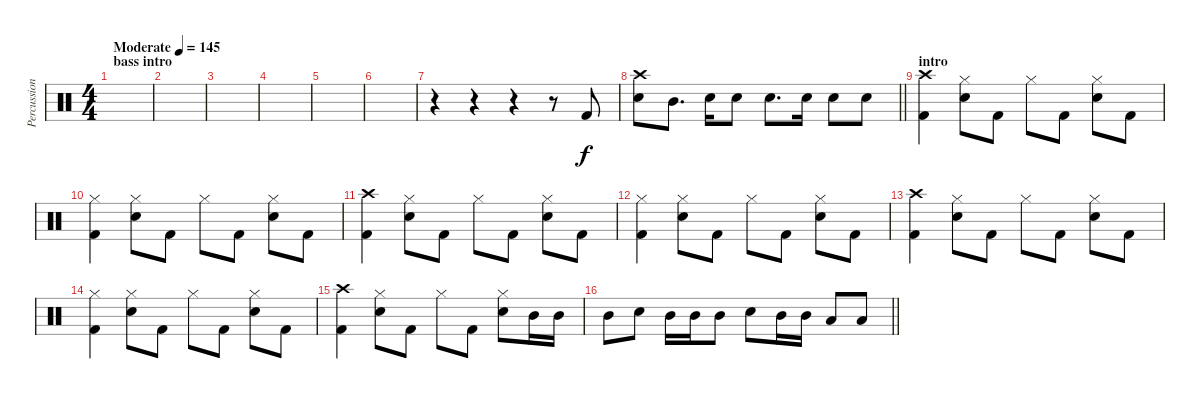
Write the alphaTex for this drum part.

\track ("Percussion" "Percussion") {instrument percussion}
\staff {score}
\articulation defaults
\ts (4 4)
\section ("" "bass intro")
\tempo (145 "Moderate")
\clef neutral
\ks c
|
|
|
|
|
|
r.4 r.4 r.4 r.8 "Kick (hit) 2".8 |
\barLineRight lightlight
("Crash high (hit)" "Electric Snare (hit)").8 "Mid Tom (hit)".8{d} "Electric Snare (hit)".16 "Electric Snare (hit)".8 "Electric Snare (hit)".8{d} "Electric Snare (hit)".16 "Electric Snare (hit)".8 "Electric Snare (hit)".8 |
\section ("" "intro ")
("Crash high (hit)" "Kick (hit) 2").4 ("Hi-Hat (closed)" "Electric Snare (hit)").8 "Kick (hit) 2".8 "Hi-Hat (closed)".8 "Kick (hit) 2".8 ("Hi-Hat (closed)" "Electric Snare (hit)").8 "Kick (hit) 2".8 |
("Hi-Hat (closed)" "Kick (hit) 2").4 ("Hi-Hat (closed)" "Electric Snare (hit)").8 "Kick (hit) 2".8 "Hi-Hat (closed)".8 "Kick (hit) 2".8 ("Hi-Hat (closed)" "Electric Snare (hit)").8 "Kick (hit) 2".8 |
("Crash high (hit)" "Kick (hit) 2").4 ("Hi-Hat (closed)" "Electric Snare (hit)").8 "Kick (hit) 2".8 "Hi-Hat (closed)".8 "Kick (hit) 2".8 ("Hi-Hat (closed)" "Electric Snare (hit)").8 "Kick (hit) 2".8 |
("Hi-Hat (closed)" "Kick (hit) 2").4 ("Hi-Hat (closed)" "Electric Snare (hit)").8 "Kick (hit) 2".8 "Hi-Hat (closed)".8 "Kick (hit) 2".8 ("Hi-Hat (closed)" "Electric Snare (hit)").8 "Kick (hit) 2".8 |
("Crash high (hit)" "Kick (hit) 2").4 ("Hi-Hat (closed)" "Electric Snare (hit)").8 "Kick (hit) 2".8 "Hi-Hat (closed)".8 "Kick (hit) 2".8 ("Hi-Hat (closed)" "Electric Snare (hit)").8 "Kick (hit) 2".8 |
("Hi-Hat (closed)" "Kick (hit) 2").4 ("Hi-Hat (closed)" "Electric Snare (hit)").8 "Kick (hit) 2".8 "Hi-Hat (closed)".8 "Kick (hit) 2".8 ("Hi-Hat (closed)" "Electric Snare (hit)").8 "Kick (hit) 2".8 |
("Crash high (hit)" "Kick (hit) 2").4 ("Hi-Hat (closed)" "Electric Snare (hit)").8 "Kick (hit) 2".8 "Hi-Hat (closed)".8 "Kick (hit) 2".8 ("Hi-Hat (closed)" "Electric Snare (hit)").8 "Mid Tom (hit)".16 "Mid Tom (hit)".16 |
\barLineRight lightlight "Mid Tom (hit)".8 "Electric Snare (hit)".8 "Mid Tom (hit)".16 "Mid Tom (hit)".16 "Mid Tom (hit)".8 "Electric Snare (hit)".8 "Mid Tom (hit)".16 "Mid Tom (hit)".16 "Low Tom (hit)".8 "Low Tom (hit)".8
